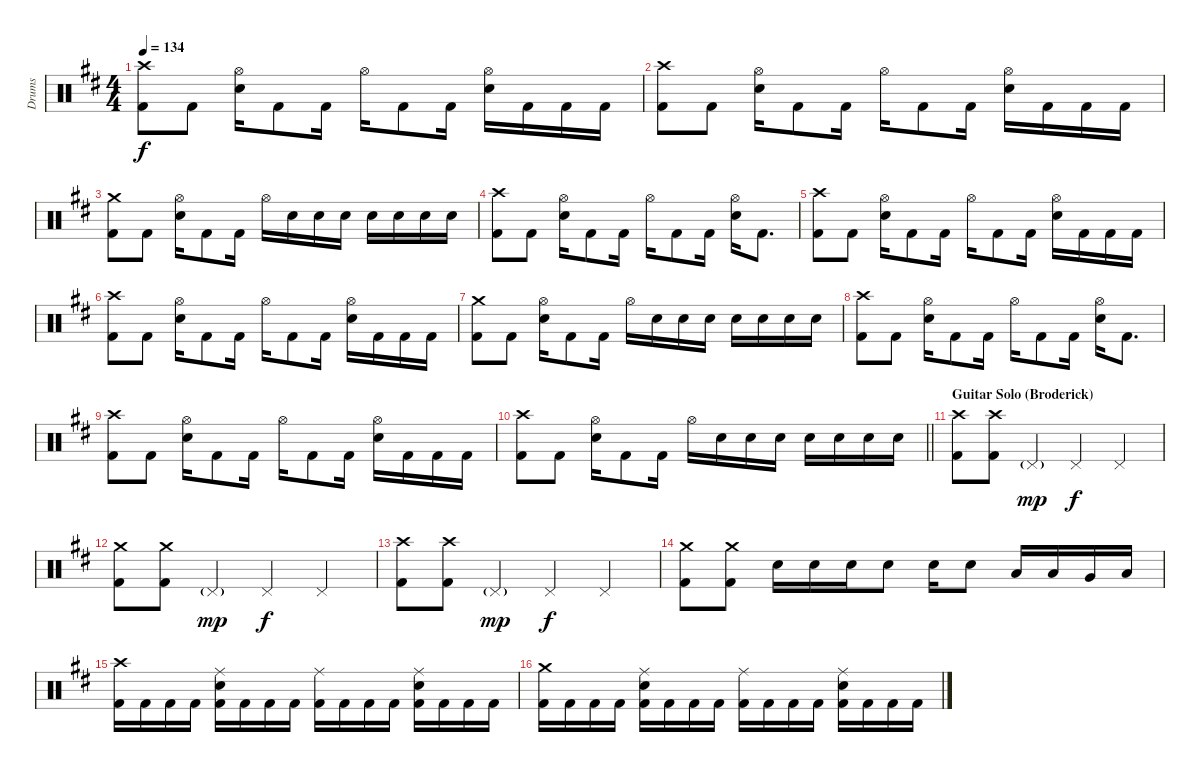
\track ("Drums" "Drums") {instrument percussion}
\staff {score}
\articulation defaults
\ts (4 4)
\tempo 134
\clef neutral
\ks bminor
("Crash high (hit)" "Kick (hit) 2").8{dy f} "Kick (hit) 2".8 ("Hi-Hat (open)" "Snare (hit) 2").16 "Kick (hit) 2".8 "Kick (hit) 2".16 "Hi-Hat (open)".16 "Kick (hit) 2".8 "Kick (hit) 2".16 ("Hi-Hat (open)" "Snare (hit) 2").16 "Kick (hit) 2".16 "Kick (hit) 2".16 "Kick (hit) 2".16 |
("Crash high (hit)" "Kick (hit) 2").8 "Kick (hit) 2".8 ("Hi-Hat (open)" "Snare (hit) 2").16 "Kick (hit) 2".8 "Kick (hit) 2".16 "Hi-Hat (open)".16 "Kick (hit) 2".8 "Kick (hit) 2".16 ("Hi-Hat (open)" "Snare (hit) 2").16 "Kick (hit) 2".16 "Kick (hit) 2".16 "Kick (hit) 2".16 |
("Crash medium (hit)" "Kick (hit) 2").8 "Kick (hit) 2".8 ("Hi-Hat (open)" "Snare (hit) 2").16 "Kick (hit) 2".8 "Kick (hit) 2".16 "Hi-Hat (open)".16 "Snare (hit) 2".16 "Snare (hit) 2".16 "Snare (hit) 2".16 "Snare (hit) 2".16 "Snare (hit) 2".16 "Snare (hit) 2".16 "Snare (hit) 2".16 |
("Crash high (hit)" "Kick (hit) 2").8 "Kick (hit) 2".8 ("Hi-Hat (open)" "Snare (hit) 2").16 "Kick (hit) 2".8 "Kick (hit) 2".16 "Hi-Hat (open)".16 "Kick (hit) 2".8 "Kick (hit) 2".16 ("Hi-Hat (open)" "Snare (hit) 2").16 "Kick (hit) 2".8{d} |
("Crash high (hit)" "Kick (hit) 2").8 "Kick (hit) 2".8 ("Hi-Hat (open)" "Snare (hit) 2").16 "Kick (hit) 2".8 "Kick (hit) 2".16 "Hi-Hat (open)".16 "Kick (hit) 2".8 "Kick (hit) 2".16 ("Hi-Hat (open)" "Snare (hit) 2").16 "Kick (hit) 2".16 "Kick (hit) 2".16 "Kick (hit) 2".16 |
("Crash high (hit)" "Kick (hit) 2").8 "Kick (hit) 2".8 ("Hi-Hat (open)" "Snare (hit) 2").16 "Kick (hit) 2".8 "Kick (hit) 2".16 "Hi-Hat (open)".16 "Kick (hit) 2".8 "Kick (hit) 2".16 ("Hi-Hat (open)" "Snare (hit) 2").16 "Kick (hit) 2".16 "Kick (hit) 2".16 "Kick (hit) 2".16 |
("Crash medium (hit)" "Kick (hit) 2").8 "Kick (hit) 2".8 ("Hi-Hat (open)" "Snare (hit) 2").16 "Kick (hit) 2".8 "Kick (hit) 2".16 "Hi-Hat (open)".16 "Snare (hit) 2".16 "Snare (hit) 2".16 "Snare (hit) 2".16 "Snare (hit) 2".16 "Snare (hit) 2".16 "Snare (hit) 2".16 "Snare (hit) 2".16 |
("Crash high (hit)" "Kick (hit) 2").8 "Kick (hit) 2".8 ("Hi-Hat (open)" "Snare (hit) 2").16 "Kick (hit) 2".8 "Kick (hit) 2".16 "Hi-Hat (open)".16 "Kick (hit) 2".8 "Kick (hit) 2".16 ("Hi-Hat (open)" "Snare (hit) 2").16 "Kick (hit) 2".8{d} |
("Crash high (hit)" "Kick (hit) 2").8 "Kick (hit) 2".8 ("Hi-Hat (open)" "Snare (hit) 2").16 "Kick (hit) 2".8 "Kick (hit) 2".16 "Hi-Hat (open)".16 "Kick (hit) 2".8 "Kick (hit) 2".16 ("Hi-Hat (open)" "Snare (hit) 2").16 "Kick (hit) 2".16 "Kick (hit) 2".16 "Kick (hit) 2".16 |
\barLineRight lightlight
("Crash high (hit)" "Kick (hit) 2").8 "Kick (hit) 2".8 ("Hi-Hat (open)" "Snare (hit) 2").16 "Kick (hit) 2".8 "Kick (hit) 2".16 "Hi-Hat (open)".16 "Snare (hit) 2".16 "Snare (hit) 2".16 "Snare (hit) 2".16 "Snare (hit) 2".16 "Snare (hit) 2".16 "Snare (hit) 2".16 "Snare (hit) 2".16 |
\section ("" "Guitar Solo (Broderick)")
("Crash high (hit)" "Kick (hit) 2").8 ("Crash high (hit)" "Kick (hit) 2").8 "Pedal Hi-Hat (hit)"{g}.4{dy mp} "Pedal Hi-Hat (hit)".4{dy f} "Pedal Hi-Hat (hit)".4 |
("Crash medium (hit)" "Kick (hit) 2").8 ("Crash medium (hit)" "Kick (hit) 2").8 "Pedal Hi-Hat (hit)"{g}.4{dy mp} "Pedal Hi-Hat (hit)".4{dy f} "Pedal Hi-Hat (hit)".4 |
("Crash high (hit)" "Kick (hit) 2").8 ("Crash high (hit)" "Kick (hit) 2").8 "Pedal Hi-Hat (hit)"{g}.4{dy mp} "Pedal Hi-Hat (hit)".4{dy f} "Pedal Hi-Hat (hit)".4 |
("Crash medium (hit)" "Kick (hit) 2").8 ("Crash medium (hit)" "Kick (hit) 2").8 "Snare (hit) 2".16 "Snare (hit) 2".16 "Snare (hit) 2".16 "Snare (hit) 2".8 "Snare (hit) 2".16 "Snare (hit) 2".8 "Low Tom (hit)".16 "Low Tom (hit)".16 "Very Low Tom (hit)".16 "Low Floor Tom (hit)".16 |
("Crash high (hit)" "Kick (hit) 2").16 "Kick (hit) 2".16 "Kick (hit) 2".16 "Kick (hit) 2".16 ("Ride (middle)" "Snare (hit) 2" "Kick (hit) 2").16 "Kick (hit) 2".16 "Kick (hit) 2".16 "Kick (hit) 2".16 ("Ride (middle)" "Kick (hit) 2").16 "Kick (hit) 2".16 "Kick (hit) 2".16 "Kick (hit) 2".16 ("Ride (middle)" "Snare (hit) 2" "Kick (hit) 2").16 "Kick (hit) 2".16 "Kick (hit) 2".16 "Kick (hit) 2".16 |
("Crash medium (hit)" "Kick (hit) 2").16 "Kick (hit) 2".16 "Kick (hit) 2".16 "Kick (hit) 2".16 ("Ride (middle)" "Snare (hit) 2" "Kick (hit) 2").16 "Kick (hit) 2".16 "Kick (hit) 2".16 "Kick (hit) 2".16 ("Ride (middle)" "Kick (hit) 2").16 "Kick (hit) 2".16 "Kick (hit) 2".16 "Kick (hit) 2".16 ("Ride (middle)" "Snare (hit) 2" "Kick (hit) 2").16 "Kick (hit) 2".16 "Kick (hit) 2".16 "Kick (hit) 2".16
